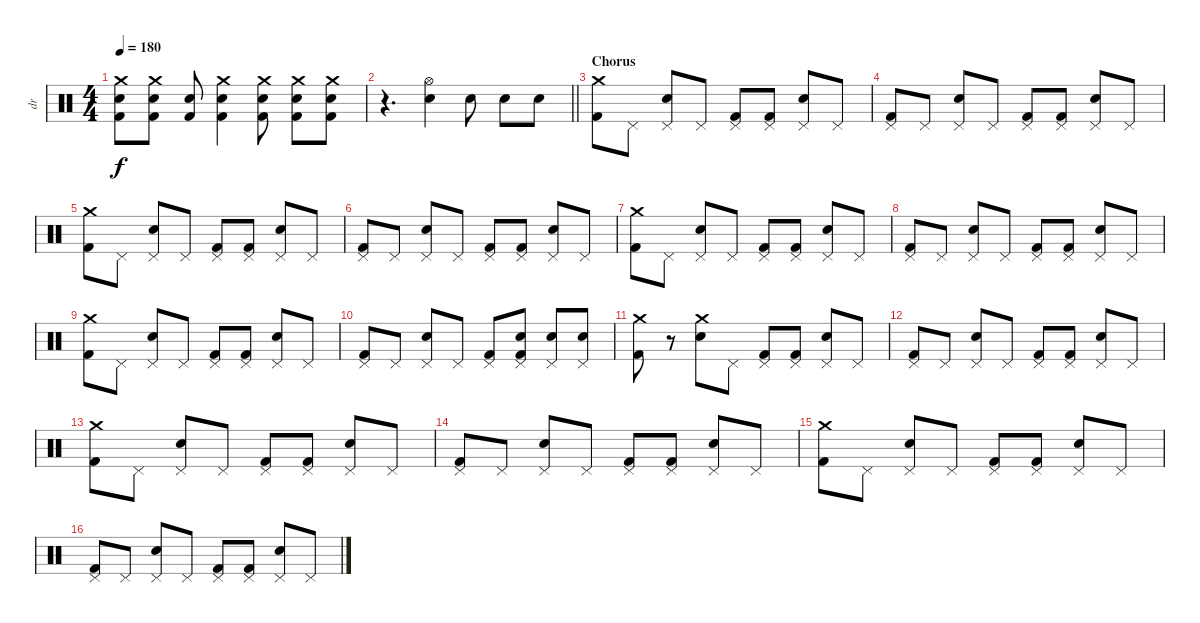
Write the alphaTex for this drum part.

\track ("dr" "dr") {instrument percussion}
\staff {score}
\articulation defaults
\ts (4 4)
\tempo 180
\clef neutral
\ks c
("Crash medium (hit)" "Electric Snare (hit)" "Kick (hit) 2").8{dy f} ("Crash medium (hit)" "Electric Snare (hit)" "Kick (hit) 2").8 ("Electric Snare (hit)" "Kick (hit) 2").8 ("Crash medium (hit)" "Electric Snare (hit)" "Kick (hit) 2").4 ("Crash medium (hit)" "Electric Snare (hit)" "Kick (hit) 2").8 ("Crash medium (hit)" "Electric Snare (hit)" "Kick (hit) 2").8 ("Crash medium (hit)" "Electric Snare (hit)" "Kick (hit) 2").8 |
\barLineRight lightlight
r.4{d} ("Hi-Hat (open)" "Electric Snare (hit)").4 "Electric Snare (hit)".8 "Electric Snare (hit)".8 "Electric Snare (hit)".8 |
\section ("" "Chorus")
("Crash medium (hit)" "Kick (hit) 2").8 "Pedal Hi-Hat (hit)".8 ("Pedal Hi-Hat (hit)" "Electric Snare (hit)").8 "Pedal Hi-Hat (hit)".8 ("Pedal Hi-Hat (hit)" "Kick (hit) 2").8 ("Pedal Hi-Hat (hit)" "Kick (hit) 2").8 ("Pedal Hi-Hat (hit)" "Electric Snare (hit)").8 "Pedal Hi-Hat (hit)".8 |
("Pedal Hi-Hat (hit)" "Kick (hit) 2").8 "Pedal Hi-Hat (hit)".8 ("Pedal Hi-Hat (hit)" "Electric Snare (hit)").8 "Pedal Hi-Hat (hit)".8 ("Pedal Hi-Hat (hit)" "Kick (hit) 2").8 ("Pedal Hi-Hat (hit)" "Kick (hit) 2").8 ("Pedal Hi-Hat (hit)" "Electric Snare (hit)").8 "Pedal Hi-Hat (hit)".8 |
("Crash medium (hit)" "Kick (hit) 2").8 "Pedal Hi-Hat (hit)".8 ("Pedal Hi-Hat (hit)" "Electric Snare (hit)").8 "Pedal Hi-Hat (hit)".8 ("Pedal Hi-Hat (hit)" "Kick (hit) 2").8 ("Pedal Hi-Hat (hit)" "Kick (hit) 2").8 ("Pedal Hi-Hat (hit)" "Electric Snare (hit)").8 "Pedal Hi-Hat (hit)".8 |
("Pedal Hi-Hat (hit)" "Kick (hit) 2").8 "Pedal Hi-Hat (hit)".8 ("Pedal Hi-Hat (hit)" "Electric Snare (hit)").8 "Pedal Hi-Hat (hit)".8 ("Pedal Hi-Hat (hit)" "Kick (hit) 2").8 ("Pedal Hi-Hat (hit)" "Kick (hit) 2").8 ("Pedal Hi-Hat (hit)" "Electric Snare (hit)").8 "Pedal Hi-Hat (hit)".8 |
("Crash medium (hit)" "Kick (hit) 2").8 "Pedal Hi-Hat (hit)".8 ("Pedal Hi-Hat (hit)" "Electric Snare (hit)").8 "Pedal Hi-Hat (hit)".8 ("Pedal Hi-Hat (hit)" "Kick (hit) 2").8 ("Pedal Hi-Hat (hit)" "Kick (hit) 2").8 ("Pedal Hi-Hat (hit)" "Electric Snare (hit)").8 "Pedal Hi-Hat (hit)".8 |
("Pedal Hi-Hat (hit)" "Kick (hit) 2").8 "Pedal Hi-Hat (hit)".8 ("Pedal Hi-Hat (hit)" "Electric Snare (hit)").8 "Pedal Hi-Hat (hit)".8 ("Pedal Hi-Hat (hit)" "Kick (hit) 2").8 ("Pedal Hi-Hat (hit)" "Kick (hit) 2").8 ("Pedal Hi-Hat (hit)" "Electric Snare (hit)").8 "Pedal Hi-Hat (hit)".8 |
("Crash medium (hit)" "Kick (hit) 2").8 "Pedal Hi-Hat (hit)".8 ("Pedal Hi-Hat (hit)" "Electric Snare (hit)").8 "Pedal Hi-Hat (hit)".8 ("Pedal Hi-Hat (hit)" "Kick (hit) 2").8 ("Pedal Hi-Hat (hit)" "Kick (hit) 2").8 ("Pedal Hi-Hat (hit)" "Electric Snare (hit)").8 "Pedal Hi-Hat (hit)".8 |
("Pedal Hi-Hat (hit)" "Kick (hit) 2").8 "Pedal Hi-Hat (hit)".8 ("Pedal Hi-Hat (hit)" "Electric Snare (hit)").8 "Pedal Hi-Hat (hit)".8 ("Pedal Hi-Hat (hit)" "Kick (hit) 2").8 ("Pedal Hi-Hat (hit)" "Electric Snare (hit)" "Kick (hit) 2").8 ("Pedal Hi-Hat (hit)" "Electric Snare (hit)").8 ("Pedal Hi-Hat (hit)" "Electric Snare (hit)").8 |
("Crash medium (hit)" "Kick (hit) 2").8 r.8 ("Crash medium (hit)" "Electric Snare (hit)").8 "Pedal Hi-Hat (hit)".8 ("Pedal Hi-Hat (hit)" "Kick (hit) 2").8 ("Pedal Hi-Hat (hit)" "Kick (hit) 2").8 ("Pedal Hi-Hat (hit)" "Electric Snare (hit)").8 "Pedal Hi-Hat (hit)".8 |
("Pedal Hi-Hat (hit)" "Kick (hit) 2").8 "Pedal Hi-Hat (hit)".8 ("Pedal Hi-Hat (hit)" "Electric Snare (hit)").8 "Pedal Hi-Hat (hit)".8 ("Pedal Hi-Hat (hit)" "Kick (hit) 2").8 ("Pedal Hi-Hat (hit)" "Kick (hit) 2").8 ("Pedal Hi-Hat (hit)" "Electric Snare (hit)").8 "Pedal Hi-Hat (hit)".8 |
("Crash medium (hit)" "Kick (hit) 2").8 "Pedal Hi-Hat (hit)".8 ("Pedal Hi-Hat (hit)" "Electric Snare (hit)").8 "Pedal Hi-Hat (hit)".8 ("Pedal Hi-Hat (hit)" "Kick (hit) 2").8 ("Pedal Hi-Hat (hit)" "Kick (hit) 2").8 ("Pedal Hi-Hat (hit)" "Electric Snare (hit)").8 "Pedal Hi-Hat (hit)".8 |
("Pedal Hi-Hat (hit)" "Kick (hit) 2").8 "Pedal Hi-Hat (hit)".8 ("Pedal Hi-Hat (hit)" "Electric Snare (hit)").8 "Pedal Hi-Hat (hit)".8 ("Pedal Hi-Hat (hit)" "Kick (hit) 2").8 ("Pedal Hi-Hat (hit)" "Kick (hit) 2").8 ("Pedal Hi-Hat (hit)" "Electric Snare (hit)").8 "Pedal Hi-Hat (hit)".8 |
("Crash medium (hit)" "Kick (hit) 2").8 "Pedal Hi-Hat (hit)".8 ("Pedal Hi-Hat (hit)" "Electric Snare (hit)").8 "Pedal Hi-Hat (hit)".8 ("Pedal Hi-Hat (hit)" "Kick (hit) 2").8 ("Pedal Hi-Hat (hit)" "Kick (hit) 2").8 ("Pedal Hi-Hat (hit)" "Electric Snare (hit)").8 "Pedal Hi-Hat (hit)".8 |
("Pedal Hi-Hat (hit)" "Kick (hit) 2").8 "Pedal Hi-Hat (hit)".8 ("Pedal Hi-Hat (hit)" "Electric Snare (hit)").8 "Pedal Hi-Hat (hit)".8 ("Pedal Hi-Hat (hit)" "Kick (hit) 2").8 ("Pedal Hi-Hat (hit)" "Kick (hit) 2").8 ("Pedal Hi-Hat (hit)" "Electric Snare (hit)").8 "Pedal Hi-Hat (hit)".8
